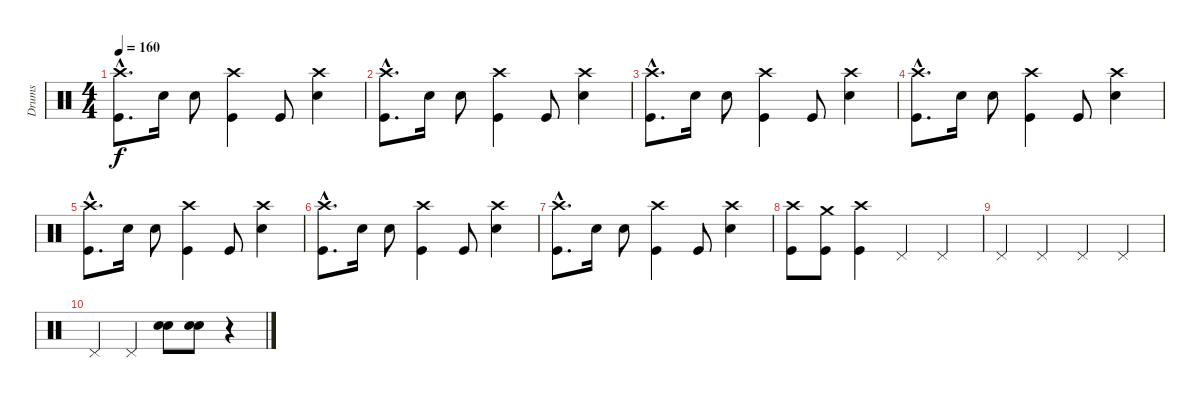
\track ("Drums" "Drums") {instrument percussion}
\staff {score}
\articulation defaults
\ts (4 4)
\tempo 160
\clef neutral
\ks c
("Crash high (hit)"{hac} "Kick (hit)"{hac}).8{d dy f} "Snare (hit) 2".16 "Snare (hit) 2".8 ("Crash high (hit)" "Kick (hit)").4 "Kick (hit)".8 ("Crash high (hit)" "Snare (hit) 2").4 |
("Crash high (hit)"{hac} "Kick (hit)"{hac}).8{d} "Snare (hit) 2".16 "Snare (hit) 2".8 ("Crash high (hit)" "Kick (hit)").4 "Kick (hit)".8 ("Crash high (hit)" "Snare (hit) 2").4 |
("Crash high (hit)"{hac} "Kick (hit)"{hac}).8{d} "Snare (hit) 2".16 "Snare (hit) 2".8 ("Crash high (hit)" "Kick (hit)").4 "Kick (hit)".8 ("Crash high (hit)" "Snare (hit) 2").4 |
("Crash high (hit)"{hac} "Kick (hit)"{hac}).8{d} "Snare (hit) 2".16 "Snare (hit) 2".8 ("Crash high (hit)" "Kick (hit)").4 "Kick (hit)".8 ("Crash high (hit)" "Snare (hit) 2").4 |
("Crash high (hit)"{hac} "Kick (hit)"{hac}).8{d} "Snare (hit) 2".16 "Snare (hit) 2".8 ("Crash high (hit)" "Kick (hit)").4 "Kick (hit)".8 ("Crash high (hit)" "Snare (hit) 2").4 |
("Crash high (hit)"{hac} "Kick (hit)"{hac}).8{d} "Snare (hit) 2".16 "Snare (hit) 2".8 ("Crash high (hit)" "Kick (hit)").4 "Kick (hit)".8 ("Crash high (hit)" "Snare (hit) 2").4 |
("Crash high (hit)"{hac} "Kick (hit)"{hac}).8{d} "Snare (hit) 2".16 "Snare (hit) 2".8 ("Crash high (hit)" "Kick (hit)").4 "Kick (hit)".8 ("Crash high (hit)" "Snare (hit) 2").4 |
("Crash high (hit)" "Kick (hit)").8 ("Crash medium (hit)" "Kick (hit)").8 ("Crash high (hit)" "Kick (hit)").4 "Pedal Hi-Hat (hit)".4 "Pedal Hi-Hat (hit)".4 |
"Pedal Hi-Hat (hit)".4 "Pedal Hi-Hat (hit)".4 "Pedal Hi-Hat (hit)".4 "Pedal Hi-Hat (hit)".4 |
"Pedal Hi-Hat (hit)".4 "Pedal Hi-Hat (hit)".4 ("Snare (hit) 2" "Electric Snare (hit)").8 ("Snare (hit) 2" "Electric Snare (hit)").8 r.4
